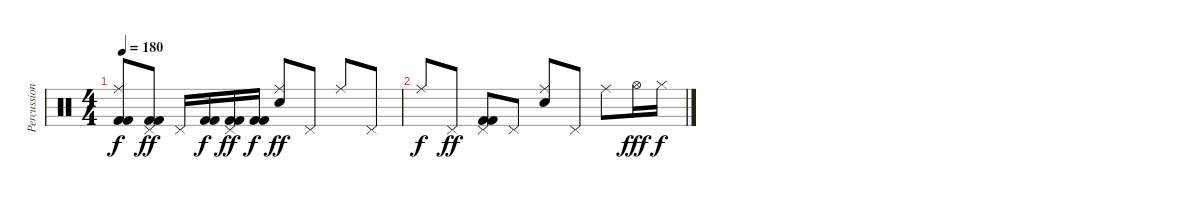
\track ("Percussion" "Percussion") {instrument percussion}
\staff {score}
\articulation defaults
\ts (4 4)
\tempo 180
\clef neutral
\ks c
("Ride (middle)" "Kick (hit) 2" "Kick (hit) 2").8{dy f} ("Pedal Hi-Hat (hit)" "Kick (hit) 2" "Kick (hit) 2").8{dy ff} "Pedal Hi-Hat (hit)".16 ("Kick (hit) 2" "Kick (hit) 2").16{dy f} ("Pedal Hi-Hat (hit)" "Kick (hit) 2" "Kick (hit) 2").16{dy ff} ("Kick (hit) 2" "Kick (hit) 2").16{dy f} ("Ride (middle)" "Electric Snare (hit)").8{dy ff} "Pedal Hi-Hat (hit)".8 "Ride (middle)".8 "Pedal Hi-Hat (hit)".8 |
"Ride (middle)".8{dy f} "Pedal Hi-Hat (hit)".8{dy ff} ("Pedal Hi-Hat (hit)" "Kick (hit) 2" "Kick (hit) 2").8 "Pedal Hi-Hat (hit)".8 ("Ride (middle)" "Electric Snare (hit)").8 "Pedal Hi-Hat (hit)".8 "Ride (middle)".8 "Hi-Hat (open)".16{dy fff} "Hi-Hat (closed)".16{dy f}
